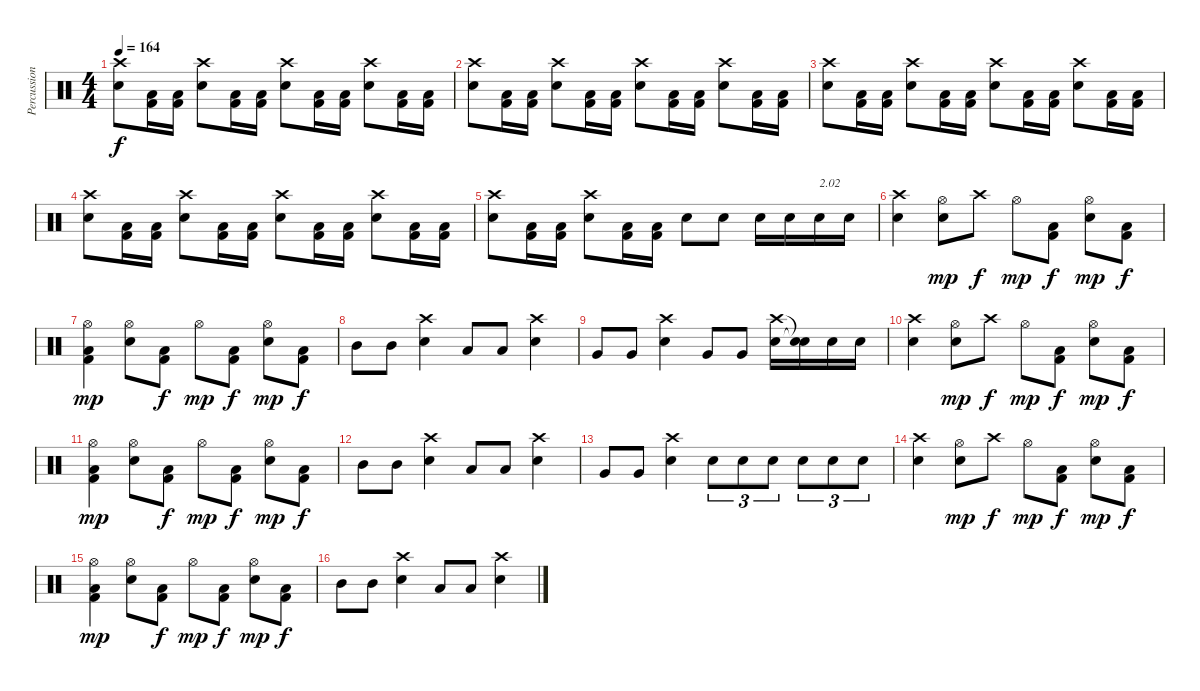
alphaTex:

\track ("Percussions" "Percussion") {instrument percussion}
\staff {score}
\articulation defaults
\ts (4 4)
\tempo 164
\clef neutral
\ks c
("Electric Snare (hit)" "Crash high (hit)").8{dy f} ("Kick (hit) 2" "Low Floor Tom (hit)").16 ("Kick (hit) 2" "Low Floor Tom (hit)").16 ("Electric Snare (hit)" "Crash high (hit)").8 ("Kick (hit) 2" "Low Floor Tom (hit)").16 ("Kick (hit) 2" "Low Floor Tom (hit)").16 ("Electric Snare (hit)" "Crash high (hit)").8 ("Kick (hit) 2" "Low Floor Tom (hit)").16 ("Kick (hit) 2" "Low Floor Tom (hit)").16 ("Electric Snare (hit)" "Crash high (hit)").8 ("Kick (hit) 2" "Low Floor Tom (hit)").16 ("Kick (hit) 2" "Low Floor Tom (hit)").16 |
("Electric Snare (hit)" "Crash high (hit)").8 ("Kick (hit) 2" "Low Floor Tom (hit)").16 ("Kick (hit) 2" "Low Floor Tom (hit)").16 ("Electric Snare (hit)" "Crash high (hit)").8 ("Kick (hit) 2" "Low Floor Tom (hit)").16 ("Kick (hit) 2" "Low Floor Tom (hit)").16 ("Electric Snare (hit)" "Crash high (hit)").8 ("Kick (hit) 2" "Low Floor Tom (hit)").16 ("Kick (hit) 2" "Low Floor Tom (hit)").16 ("Electric Snare (hit)" "Crash high (hit)").8 ("Kick (hit) 2" "Low Floor Tom (hit)").16 ("Kick (hit) 2" "Low Floor Tom (hit)").16 |
("Electric Snare (hit)" "Crash high (hit)").8 ("Kick (hit) 2" "Low Floor Tom (hit)").16 ("Kick (hit) 2" "Low Floor Tom (hit)").16 ("Electric Snare (hit)" "Crash high (hit)").8 ("Kick (hit) 2" "Low Floor Tom (hit)").16 ("Kick (hit) 2" "Low Floor Tom (hit)").16 ("Electric Snare (hit)" "Crash high (hit)").8 ("Kick (hit) 2" "Low Floor Tom (hit)").16 ("Kick (hit) 2" "Low Floor Tom (hit)").16 ("Electric Snare (hit)" "Crash high (hit)").8 ("Kick (hit) 2" "Low Floor Tom (hit)").16 ("Kick (hit) 2" "Low Floor Tom (hit)").16 |
("Electric Snare (hit)" "Crash high (hit)").8 ("Kick (hit) 2" "Low Floor Tom (hit)").16 ("Kick (hit) 2" "Low Floor Tom (hit)").16 ("Electric Snare (hit)" "Crash high (hit)").8 ("Kick (hit) 2" "Low Floor Tom (hit)").16 ("Kick (hit) 2" "Low Floor Tom (hit)").16 ("Electric Snare (hit)" "Crash high (hit)").8 ("Kick (hit) 2" "Low Floor Tom (hit)").16 ("Kick (hit) 2" "Low Floor Tom (hit)").16 ("Electric Snare (hit)" "Crash high (hit)").8 ("Kick (hit) 2" "Low Floor Tom (hit)").16 ("Kick (hit) 2" "Low Floor Tom (hit)").16 |
("Electric Snare (hit)" "Crash high (hit)").8 ("Kick (hit) 2" "Low Floor Tom (hit)").16 ("Kick (hit) 2" "Low Floor Tom (hit)").16 ("Electric Snare (hit)" "Crash high (hit)").8 ("Kick (hit) 2" "Low Floor Tom (hit)").16 ("Kick (hit) 2" "Low Floor Tom (hit)").16 "Electric Snare (hit)".8 "Electric Snare (hit)".8 "Electric Snare (hit)".16 "Electric Snare (hit)".16 "Electric Snare (hit)".16{txt "2.02"} "Electric Snare (hit)".16 |
("Electric Snare (hit)" "Crash high (hit)").4 ("Electric Snare (hit)" "Hi-Hat (open)").8{dy mp} "Crash high (hit)".8{dy f} "Hi-Hat (open)".8{dy mp} ("Kick (hit) 2" "Low Floor Tom (hit)").8{dy f} ("Electric Snare (hit)" "Hi-Hat (open)").8{dy mp} ("Kick (hit) 2" "Low Floor Tom (hit)").8{dy f} |
("Kick (hit) 2" "Low Floor Tom (hit)" "Hi-Hat (open)").4{dy mp} ("Electric Snare (hit)" "Hi-Hat (open)").8 ("Kick (hit) 2" "Low Floor Tom (hit)").8{dy f} "Hi-Hat (open)".8{dy mp} ("Kick (hit) 2" "Low Floor Tom (hit)").8{dy f} ("Electric Snare (hit)" "Hi-Hat (open)").8{dy mp} ("Kick (hit) 2" "Low Floor Tom (hit)").8{dy f} |
"Mid Tom (hit)".8 "Mid Tom (hit)".8 ("Electric Snare (hit)" "Crash high (hit)").4 "Low Tom (hit)".8 "Low Tom (hit)".8 ("Electric Snare (hit)" "Crash high (hit)").4 |
"Very Low Tom (hit)".8 "Very Low Tom (hit)".8 ("Electric Snare (hit)" "Crash high (hit)").4 "Very Low Tom (hit)".8 "Very Low Tom (hit)".8 ("Electric Snare (hit)" "Crash high (hit)").16 ("Snare (hit)"{t} "Snare (hit)"{t}).16 "Electric Snare (hit)".16 "Electric Snare (hit)".16 |
("Electric Snare (hit)" "Crash high (hit)").4 ("Electric Snare (hit)" "Hi-Hat (open)").8{dy mp} "Crash high (hit)".8{dy f} "Hi-Hat (open)".8{dy mp} ("Kick (hit) 2" "Low Floor Tom (hit)").8{dy f} ("Electric Snare (hit)" "Hi-Hat (open)").8{dy mp} ("Kick (hit) 2" "Low Floor Tom (hit)").8{dy f} |
("Kick (hit) 2" "Low Floor Tom (hit)" "Hi-Hat (open)").4{dy mp} ("Electric Snare (hit)" "Hi-Hat (open)").8 ("Kick (hit) 2" "Low Floor Tom (hit)").8{dy f} "Hi-Hat (open)".8{dy mp} ("Kick (hit) 2" "Low Floor Tom (hit)").8{dy f} ("Electric Snare (hit)" "Hi-Hat (open)").8{dy mp} ("Kick (hit) 2" "Low Floor Tom (hit)").8{dy f} |
"Mid Tom (hit)".8 "Mid Tom (hit)".8 ("Electric Snare (hit)" "Crash high (hit)").4 "Low Tom (hit)".8 "Low Tom (hit)".8 ("Electric Snare (hit)" "Crash high (hit)").4 |
"Very Low Tom (hit)".8 "Very Low Tom (hit)".8 ("Electric Snare (hit)" "Crash high (hit)").4 "Electric Snare (hit)".8{tu (3 2)} "Electric Snare (hit)".8{tu (3 2)} "Electric Snare (hit)".8{tu (3 2)} "Electric Snare (hit)".8{tu (3 2)} "Electric Snare (hit)".8{tu (3 2)} "Electric Snare (hit)".8{tu (3 2)} |
("Electric Snare (hit)" "Crash high (hit)").4 ("Electric Snare (hit)" "Hi-Hat (open)").8{dy mp} "Crash high (hit)".8{dy f} "Hi-Hat (open)".8{dy mp} ("Kick (hit) 2" "Low Floor Tom (hit)").8{dy f} ("Electric Snare (hit)" "Hi-Hat (open)").8{dy mp} ("Kick (hit) 2" "Low Floor Tom (hit)").8{dy f} |
("Kick (hit) 2" "Low Floor Tom (hit)" "Hi-Hat (open)").4{dy mp} ("Electric Snare (hit)" "Hi-Hat (open)").8 ("Kick (hit) 2" "Low Floor Tom (hit)").8{dy f} "Hi-Hat (open)".8{dy mp} ("Kick (hit) 2" "Low Floor Tom (hit)").8{dy f} ("Electric Snare (hit)" "Hi-Hat (open)").8{dy mp} ("Kick (hit) 2" "Low Floor Tom (hit)").8{dy f} |
"Mid Tom (hit)".8 "Mid Tom (hit)".8 ("Electric Snare (hit)" "Crash high (hit)").4 "Low Tom (hit)".8 "Low Tom (hit)".8 ("Electric Snare (hit)" "Crash high (hit)").4
